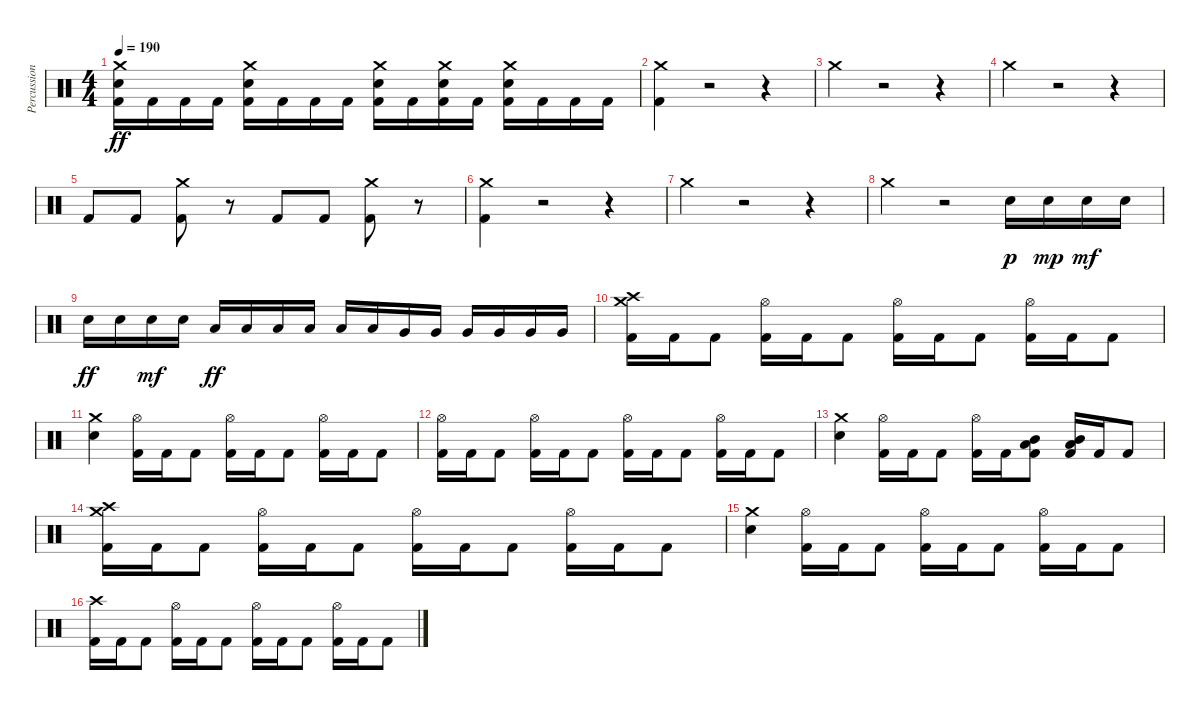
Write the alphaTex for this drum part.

\track ("Percussion" "Percussion") {instrument percussion}
\staff {score}
\articulation defaults
\ts (4 4)
\tempo 190
\clef neutral
\ks c
("Kick (hit) 2" "Electric Snare (hit)" "Crash medium (hit)").16{dy ff} "Kick (hit) 2".16 "Kick (hit) 2".16 "Kick (hit) 2".16 ("Kick (hit) 2" "Electric Snare (hit)" "Crash medium (hit)").16 "Kick (hit) 2".16 "Kick (hit) 2".16 "Kick (hit) 2".16 ("Kick (hit) 2" "Electric Snare (hit)" "Crash medium (hit)").16 "Kick (hit) 2".16 ("Kick (hit) 2" "Electric Snare (hit)" "Crash medium (hit)").16 "Kick (hit) 2".16 ("Kick (hit) 2" "Electric Snare (hit)" "Crash medium (hit)").16 "Kick (hit) 2".16 "Kick (hit) 2".16 "Kick (hit) 2".16 |
("Kick (hit) 2" "Crash medium (hit)").4 r.2 r.4 |
"Crash medium (hit)".4 r.2 r.4 |
"Crash medium (hit)".4 r.2 r.4 |
"Kick (hit) 2".8 "Kick (hit) 2".8 ("Kick (hit) 2" "Crash medium (hit)").8 r.8 "Kick (hit) 2".8 "Kick (hit) 2".8 ("Kick (hit) 2" "Crash medium (hit)").8 r.8 |
("Kick (hit) 2" "Crash medium (hit)").4 r.2 r.4 |
"Crash medium (hit)".4 r.2 r.4 |
"Crash medium (hit)".4 r.2 "Electric Snare (hit)".16{dy p} "Electric Snare (hit)".16{dy mp} "Electric Snare (hit)".16{dy mf} "Electric Snare (hit)".16 |
"Electric Snare (hit)".16{dy ff} "Electric Snare (hit)".16 "Electric Snare (hit)".16{dy mf} "Electric Snare (hit)".16 "Low Tom (hit)".16{dy ff} "Low Tom (hit)".16 "Low Tom (hit)".16 "Low Tom (hit)".16 "Low Tom (hit)".16 "Low Tom (hit)".16 "Very Low Tom (hit)".16 "Very Low Tom (hit)".16 "Very Low Tom (hit)".16 "Very Low Tom (hit)".16 "Very Low Tom (hit)".16 "Very Low Tom (hit)".16 |
("Kick (hit) 2" "Crash medium (hit)" "Crash high (hit)").16 "Kick (hit) 2".16 "Kick (hit) 2".8 ("Kick (hit) 2" "Hi-Hat (open)").16 "Kick (hit) 2".16 "Kick (hit) 2".8 ("Kick (hit) 2" "Hi-Hat (open)").16 "Kick (hit) 2".16 "Kick (hit) 2".8 ("Kick (hit) 2" "Hi-Hat (open)").16 "Kick (hit) 2".16 "Kick (hit) 2".8 |
("Crash medium (hit)" "Electric Snare (hit)").4 ("Kick (hit) 2" "Hi-Hat (open)").16 "Kick (hit) 2".16 "Kick (hit) 2".8 ("Kick (hit) 2" "Hi-Hat (open)").16 "Kick (hit) 2".16 "Kick (hit) 2".8 ("Kick (hit) 2" "Hi-Hat (open)").16 "Kick (hit) 2".16 "Kick (hit) 2".8 |
("Kick (hit) 2" "Hi-Hat (open)").16 "Kick (hit) 2".16 "Kick (hit) 2".8 ("Kick (hit) 2" "Hi-Hat (open)").16 "Kick (hit) 2".16 "Kick (hit) 2".8 ("Kick (hit) 2" "Hi-Hat (open)").16 "Kick (hit) 2".16 "Kick (hit) 2".8 ("Kick (hit) 2" "Hi-Hat (open)").16 "Kick (hit) 2".16 "Kick (hit) 2".8 |
("Crash medium (hit)" "Electric Snare (hit)").4 ("Kick (hit) 2" "Hi-Hat (open)").16 "Kick (hit) 2".16 "Kick (hit) 2".8 ("Kick (hit) 2" "Hi-Hat (open)").16 "Kick (hit) 2".16 ("Kick (hit) 2" "Low Tom (hit)" "Mid Tom (hit)").8 ("Kick (hit) 2" "Low Tom (hit)" "Mid Tom (hit)").16 "Kick (hit) 2".16 "Kick (hit) 2".8 |
("Kick (hit) 2" "Crash medium (hit)" "Crash high (hit)").16 "Kick (hit) 2".16 "Kick (hit) 2".8 ("Kick (hit) 2" "Hi-Hat (open)").16 "Kick (hit) 2".16 "Kick (hit) 2".8 ("Kick (hit) 2" "Hi-Hat (open)").16 "Kick (hit) 2".16 "Kick (hit) 2".8 ("Kick (hit) 2" "Hi-Hat (open)").16 "Kick (hit) 2".16 "Kick (hit) 2".8 |
("Crash medium (hit)" "Electric Snare (hit)").4 ("Kick (hit) 2" "Hi-Hat (open)").16 "Kick (hit) 2".16 "Kick (hit) 2".8 ("Kick (hit) 2" "Hi-Hat (open)").16 "Kick (hit) 2".16 "Kick (hit) 2".8 ("Kick (hit) 2" "Hi-Hat (open)").16 "Kick (hit) 2".16 "Kick (hit) 2".8 |
("Kick (hit) 2" "Crash high (hit)").16 "Kick (hit) 2".16 "Kick (hit) 2".8 ("Kick (hit) 2" "Hi-Hat (open)").16 "Kick (hit) 2".16 "Kick (hit) 2".8 ("Kick (hit) 2" "Hi-Hat (open)").16 "Kick (hit) 2".16 "Kick (hit) 2".8 ("Kick (hit) 2" "Hi-Hat (open)").16 "Kick (hit) 2".16 "Kick (hit) 2".8
